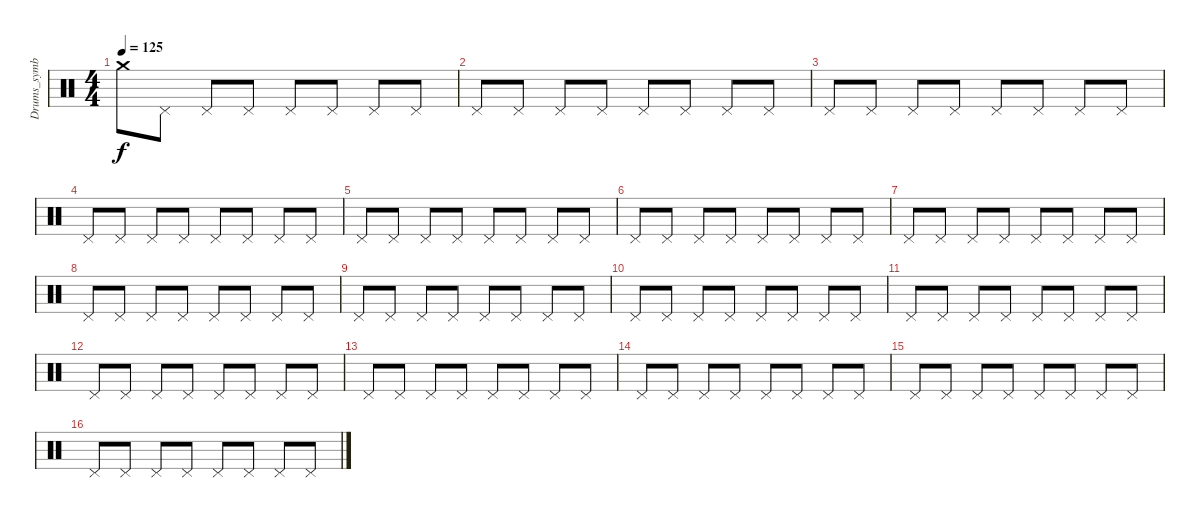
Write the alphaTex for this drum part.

\track ("Drums_symbal" "Drums_symb") {instrument percussion}
\staff {score}
\articulation defaults
\ts (4 4)
\tempo 125
\clef neutral
\ks c "Crash medium (hit)".8{dy f} "Pedal Hi-Hat (hit)".8 "Pedal Hi-Hat (hit)".8 "Pedal Hi-Hat (hit)".8 "Pedal Hi-Hat (hit)".8 "Pedal Hi-Hat (hit)".8 "Pedal Hi-Hat (hit)".8 "Pedal Hi-Hat (hit)".8
|
"Pedal Hi-Hat (hit)".8 "Pedal Hi-Hat (hit)".8 "Pedal Hi-Hat (hit)".8 "Pedal Hi-Hat (hit)".8 "Pedal Hi-Hat (hit)".8 "Pedal Hi-Hat (hit)".8 "Pedal Hi-Hat (hit)".8 "Pedal Hi-Hat (hit)".8 |
"Pedal Hi-Hat (hit)".8 "Pedal Hi-Hat (hit)".8 "Pedal Hi-Hat (hit)".8 "Pedal Hi-Hat (hit)".8 "Pedal Hi-Hat (hit)".8 "Pedal Hi-Hat (hit)".8 "Pedal Hi-Hat (hit)".8 "Pedal Hi-Hat (hit)".8 |
"Pedal Hi-Hat (hit)".8 "Pedal Hi-Hat (hit)".8 "Pedal Hi-Hat (hit)".8 "Pedal Hi-Hat (hit)".8 "Pedal Hi-Hat (hit)".8 "Pedal Hi-Hat (hit)".8 "Pedal Hi-Hat (hit)".8 "Pedal Hi-Hat (hit)".8 |
"Pedal Hi-Hat (hit)".8 "Pedal Hi-Hat (hit)".8 "Pedal Hi-Hat (hit)".8 "Pedal Hi-Hat (hit)".8 "Pedal Hi-Hat (hit)".8 "Pedal Hi-Hat (hit)".8 "Pedal Hi-Hat (hit)".8 "Pedal Hi-Hat (hit)".8 |
"Pedal Hi-Hat (hit)".8 "Pedal Hi-Hat (hit)".8 "Pedal Hi-Hat (hit)".8 "Pedal Hi-Hat (hit)".8 "Pedal Hi-Hat (hit)".8 "Pedal Hi-Hat (hit)".8 "Pedal Hi-Hat (hit)".8 "Pedal Hi-Hat (hit)".8 |
"Pedal Hi-Hat (hit)".8 "Pedal Hi-Hat (hit)".8 "Pedal Hi-Hat (hit)".8 "Pedal Hi-Hat (hit)".8 "Pedal Hi-Hat (hit)".8 "Pedal Hi-Hat (hit)".8 "Pedal Hi-Hat (hit)".8 "Pedal Hi-Hat (hit)".8 |
"Pedal Hi-Hat (hit)".8 "Pedal Hi-Hat (hit)".8 "Pedal Hi-Hat (hit)".8 "Pedal Hi-Hat (hit)".8 "Pedal Hi-Hat (hit)".8 "Pedal Hi-Hat (hit)".8 "Pedal Hi-Hat (hit)".8 "Pedal Hi-Hat (hit)".8 |
"Pedal Hi-Hat (hit)".8 "Pedal Hi-Hat (hit)".8 "Pedal Hi-Hat (hit)".8 "Pedal Hi-Hat (hit)".8 "Pedal Hi-Hat (hit)".8 "Pedal Hi-Hat (hit)".8 "Pedal Hi-Hat (hit)".8 "Pedal Hi-Hat (hit)".8 |
"Pedal Hi-Hat (hit)".8 "Pedal Hi-Hat (hit)".8 "Pedal Hi-Hat (hit)".8 "Pedal Hi-Hat (hit)".8 "Pedal Hi-Hat (hit)".8 "Pedal Hi-Hat (hit)".8 "Pedal Hi-Hat (hit)".8 "Pedal Hi-Hat (hit)".8 |
"Pedal Hi-Hat (hit)".8 "Pedal Hi-Hat (hit)".8 "Pedal Hi-Hat (hit)".8 "Pedal Hi-Hat (hit)".8 "Pedal Hi-Hat (hit)".8 "Pedal Hi-Hat (hit)".8 "Pedal Hi-Hat (hit)".8 "Pedal Hi-Hat (hit)".8 |
"Pedal Hi-Hat (hit)".8 "Pedal Hi-Hat (hit)".8 "Pedal Hi-Hat (hit)".8 "Pedal Hi-Hat (hit)".8 "Pedal Hi-Hat (hit)".8 "Pedal Hi-Hat (hit)".8 "Pedal Hi-Hat (hit)".8 "Pedal Hi-Hat (hit)".8 |
"Pedal Hi-Hat (hit)".8 "Pedal Hi-Hat (hit)".8 "Pedal Hi-Hat (hit)".8 "Pedal Hi-Hat (hit)".8 "Pedal Hi-Hat (hit)".8 "Pedal Hi-Hat (hit)".8 "Pedal Hi-Hat (hit)".8 "Pedal Hi-Hat (hit)".8 |
"Pedal Hi-Hat (hit)".8 "Pedal Hi-Hat (hit)".8 "Pedal Hi-Hat (hit)".8 "Pedal Hi-Hat (hit)".8 "Pedal Hi-Hat (hit)".8 "Pedal Hi-Hat (hit)".8 "Pedal Hi-Hat (hit)".8 "Pedal Hi-Hat (hit)".8 |
"Pedal Hi-Hat (hit)".8 "Pedal Hi-Hat (hit)".8 "Pedal Hi-Hat (hit)".8 "Pedal Hi-Hat (hit)".8 "Pedal Hi-Hat (hit)".8 "Pedal Hi-Hat (hit)".8 "Pedal Hi-Hat (hit)".8 "Pedal Hi-Hat (hit)".8 |
"Pedal Hi-Hat (hit)".8 "Pedal Hi-Hat (hit)".8 "Pedal Hi-Hat (hit)".8 "Pedal Hi-Hat (hit)".8 "Pedal Hi-Hat (hit)".8 "Pedal Hi-Hat (hit)".8 "Pedal Hi-Hat (hit)".8 "Pedal Hi-Hat (hit)".8
